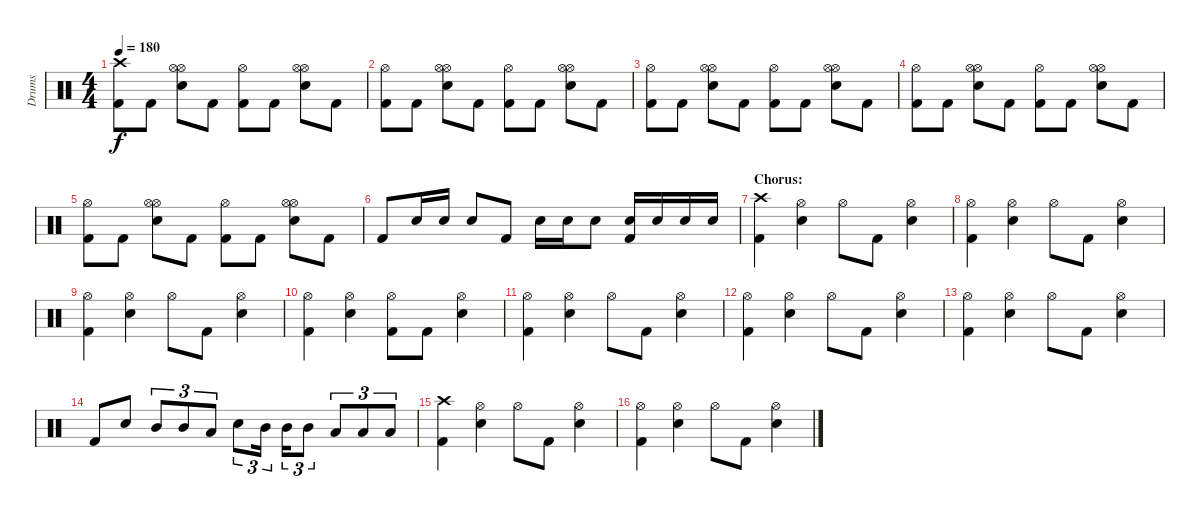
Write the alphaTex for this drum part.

\track ("Drums" "Drums") {instrument percussion}
\staff {score}
\articulation defaults
\ts (4 4)
\tempo 180
\clef neutral
\ks c
("Crash high (hit)" "Kick (hit) 2").8{dy f} "Kick (hit) 2".8 ("Hi-Hat (open)" "Electric Snare (hit)" "Hi-Hat (open)").8 "Kick (hit) 2".8 ("Hi-Hat (open)" "Kick (hit) 2").8 "Kick (hit) 2".8 ("Hi-Hat (open)" "Electric Snare (hit)" "Hi-Hat (open)").8 "Kick (hit) 2".8 |
("Hi-Hat (open)" "Kick (hit) 2").8 "Kick (hit) 2".8 ("Hi-Hat (open)" "Electric Snare (hit)" "Hi-Hat (open)").8 "Kick (hit) 2".8 ("Hi-Hat (open)" "Kick (hit) 2").8 "Kick (hit) 2".8 ("Hi-Hat (open)" "Electric Snare (hit)" "Hi-Hat (open)").8 "Kick (hit) 2".8 |
("Hi-Hat (open)" "Kick (hit) 2").8 "Kick (hit) 2".8 ("Hi-Hat (open)" "Electric Snare (hit)" "Hi-Hat (open)").8 "Kick (hit) 2".8 ("Hi-Hat (open)" "Kick (hit) 2").8 "Kick (hit) 2".8 ("Hi-Hat (open)" "Electric Snare (hit)" "Hi-Hat (open)").8 "Kick (hit) 2".8 |
("Hi-Hat (open)" "Kick (hit) 2").8 "Kick (hit) 2".8 ("Hi-Hat (open)" "Electric Snare (hit)" "Hi-Hat (open)").8 "Kick (hit) 2".8 ("Hi-Hat (open)" "Kick (hit) 2").8 "Kick (hit) 2".8 ("Hi-Hat (open)" "Electric Snare (hit)" "Hi-Hat (open)").8 "Kick (hit) 2".8 |
("Hi-Hat (open)" "Kick (hit) 2").8 "Kick (hit) 2".8 ("Hi-Hat (open)" "Electric Snare (hit)" "Hi-Hat (open)").8 "Kick (hit) 2".8 ("Hi-Hat (open)" "Kick (hit) 2").8 "Kick (hit) 2".8 ("Hi-Hat (open)" "Electric Snare (hit)" "Hi-Hat (open)").8 "Kick (hit) 2".8 |
"Kick (hit) 2".8 "Electric Snare (hit)".16 "Electric Snare (hit)".16 "Electric Snare (hit)".8 "Kick (hit) 2".8 "Electric Snare (hit)".16 "Electric Snare (hit)".16 "Electric Snare (hit)".8 ("Electric Snare (hit)" "Kick (hit) 2").16 "Electric Snare (hit)".16 "Electric Snare (hit)".16 "Electric Snare (hit)".16 |
\section ("" "Chorus:")
("Crash high (hit)" "Kick (hit) 2").4 ("Hi-Hat (open)" "Electric Snare (hit)").4 "Hi-Hat (open)".8 "Kick (hit) 2".8 ("Hi-Hat (open)" "Electric Snare (hit)").4 |
("Hi-Hat (open)" "Kick (hit) 2").4 ("Hi-Hat (open)" "Electric Snare (hit)").4 "Hi-Hat (open)".8 "Kick (hit) 2".8 ("Hi-Hat (open)" "Electric Snare (hit)").4 |
("Hi-Hat (open)" "Kick (hit) 2").4 ("Hi-Hat (open)" "Electric Snare (hit)").4 "Hi-Hat (open)".8 "Kick (hit) 2".8 ("Hi-Hat (open)" "Electric Snare (hit)").4 |
("Hi-Hat (open)" "Kick (hit) 2").4 ("Hi-Hat (open)" "Electric Snare (hit)").4 ("Hi-Hat (open)" "Kick (hit) 2").8 "Kick (hit) 2".8 ("Hi-Hat (open)" "Electric Snare (hit)").4 |
("Hi-Hat (open)" "Kick (hit) 2").4 ("Hi-Hat (open)" "Electric Snare (hit)").4 "Hi-Hat (open)".8 "Kick (hit) 2".8 ("Hi-Hat (open)" "Electric Snare (hit)").4 |
("Hi-Hat (open)" "Kick (hit) 2").4 ("Hi-Hat (open)" "Electric Snare (hit)").4 "Hi-Hat (open)".8 "Kick (hit) 2".8 ("Hi-Hat (open)" "Electric Snare (hit)").4 |
("Hi-Hat (open)" "Kick (hit) 2").4 ("Hi-Hat (open)" "Electric Snare (hit)").4 "Hi-Hat (open)".8 "Kick (hit) 2".8 ("Hi-Hat (open)" "Electric Snare (hit)").4 |
"Kick (hit) 2".8 "Electric Snare (hit)".8 "Mid Tom (hit)".8{tu (3 2)} "Mid Tom (hit)".8{tu (3 2)} "Low Tom (hit)".8{tu (3 2)} "Electric Snare (hit)".8{tu (3 2)} "Mid Tom (hit)".16{tu (3 2)} "Mid Tom (hit)".16{tu (3 2)} "Mid Tom (hit)".8{tu (3 2)} "Low Tom (hit)".8{tu (3 2)} "Low Tom (hit)".8{tu (3 2)} "Low Tom (hit)".8{tu (3 2)} |
("Crash high (hit)" "Kick (hit) 2").4 ("Hi-Hat (open)" "Electric Snare (hit)").4 "Hi-Hat (open)".8 "Kick (hit) 2".8 ("Hi-Hat (open)" "Electric Snare (hit)").4 |
("Hi-Hat (open)" "Kick (hit) 2").4 ("Hi-Hat (open)" "Electric Snare (hit)").4 "Hi-Hat (open)".8 "Kick (hit) 2".8 ("Hi-Hat (open)" "Electric Snare (hit)").4
